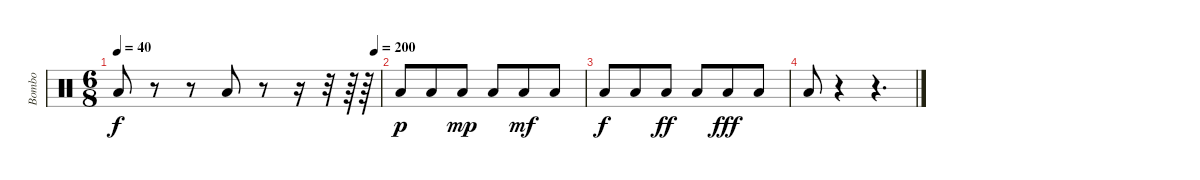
\track ("Bombo" "Bombo") {instrument percussion}
\staff {score}
\articulation defaults
\ts (6 8)
\tempo 40
\tempo (200 0.9791666666666666)
\tempo 40
\clef neutral
\ks c "Low Floor Tom (hit)".8{dy f}
r.8 r.8 "Low Floor Tom (hit)".8 r.8 r.16 r.32 r.64 r.64 |
"Low Floor Tom (hit)".8{dy p} "Low Floor Tom (hit)".8 "Low Floor Tom (hit)".8{dy mp} "Low Floor Tom (hit)".8 "Low Floor Tom (hit)".8{dy mf} "Low Floor Tom (hit)".8 |
"Low Floor Tom (hit)".8{dy f} "Low Floor Tom (hit)".8 "Low Floor Tom (hit)".8{dy ff} "Low Floor Tom (hit)".8 "Low Floor Tom (hit)".8{dy fff} "Low Floor Tom (hit)".8 |
"Low Floor Tom (hit)".8 r.4 r.4{d}
